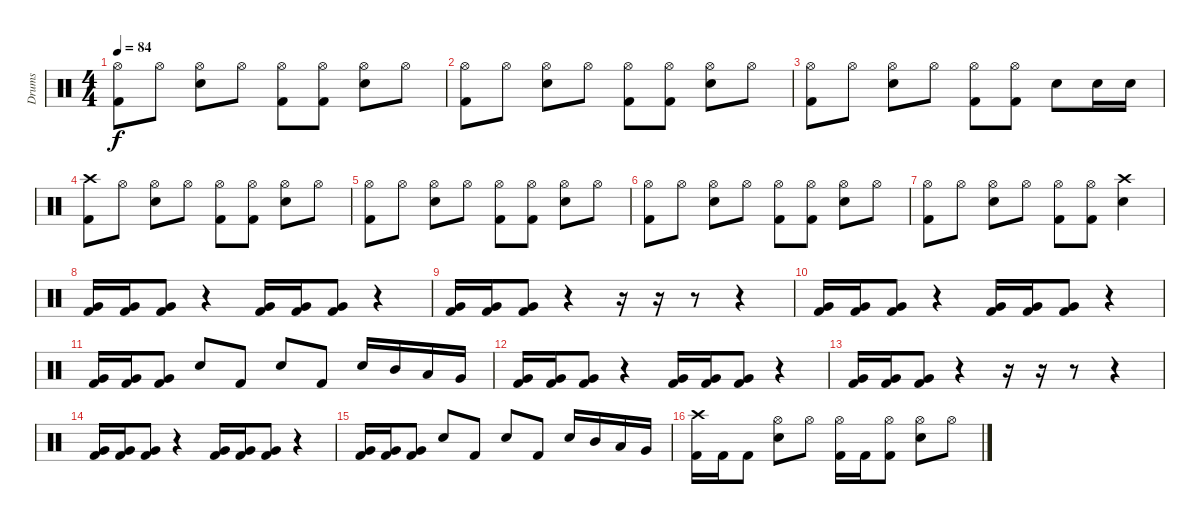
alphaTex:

\track ("Drums" "Drums") {instrument percussion}
\staff {score}
\articulation defaults
\ts (4 4)
\tempo 84
\clef neutral
\ks c
("Hi-Hat (open)" "Kick (hit) 2").8{dy f} "Hi-Hat (open)".8 ("Hi-Hat (open)" "Snare (hit) 2").8 "Hi-Hat (open)".8 ("Hi-Hat (open)" "Kick (hit) 2").8 ("Hi-Hat (open)" "Kick (hit) 2").8 ("Hi-Hat (open)" "Snare (hit) 2").8 "Hi-Hat (open)".8 |
("Hi-Hat (open)" "Kick (hit) 2").8 "Hi-Hat (open)".8 ("Hi-Hat (open)" "Snare (hit) 2").8 "Hi-Hat (open)".8 ("Hi-Hat (open)" "Kick (hit) 2").8 ("Hi-Hat (open)" "Kick (hit) 2").8 ("Hi-Hat (open)" "Snare (hit) 2").8 "Hi-Hat (open)".8 |
("Hi-Hat (open)" "Kick (hit) 2").8 "Hi-Hat (open)".8 ("Hi-Hat (open)" "Snare (hit) 2").8 "Hi-Hat (open)".8 ("Hi-Hat (open)" "Kick (hit) 2").8 ("Hi-Hat (open)" "Kick (hit) 2").8 "Snare (hit) 2".8 "Snare (hit) 2".16 "Snare (hit) 2".16 |
("Crash high (hit)" "Kick (hit) 2").8 "Hi-Hat (open)".8 ("Hi-Hat (open)" "Snare (hit) 2").8 "Hi-Hat (open)".8 ("Hi-Hat (open)" "Kick (hit) 2").8 ("Hi-Hat (open)" "Kick (hit) 2").8 ("Hi-Hat (open)" "Snare (hit) 2").8 "Hi-Hat (open)".8 |
("Hi-Hat (open)" "Kick (hit) 2").8 "Hi-Hat (open)".8 ("Hi-Hat (open)" "Snare (hit) 2").8 "Hi-Hat (open)".8 ("Hi-Hat (open)" "Kick (hit) 2").8 ("Hi-Hat (open)" "Kick (hit) 2").8 ("Hi-Hat (open)" "Snare (hit) 2").8 "Hi-Hat (open)".8 |
("Hi-Hat (open)" "Kick (hit) 2").8 "Hi-Hat (open)".8 ("Hi-Hat (open)" "Snare (hit) 2").8 "Hi-Hat (open)".8 ("Hi-Hat (open)" "Kick (hit) 2").8 ("Hi-Hat (open)" "Kick (hit) 2").8 ("Hi-Hat (open)" "Snare (hit) 2").8 "Hi-Hat (open)".8 |
("Hi-Hat (open)" "Kick (hit) 2").8 "Hi-Hat (open)".8 ("Hi-Hat (open)" "Snare (hit) 2").8 "Hi-Hat (open)".8 ("Hi-Hat (open)" "Kick (hit) 2").8 ("Hi-Hat (open)" "Kick (hit) 2").8 ("Crash high (hit)" "Snare (hit) 2").4 |
("Very Low Tom (hit)" "Kick (hit) 2").16 ("Very Low Tom (hit)" "Kick (hit) 2").16 ("Very Low Tom (hit)" "Kick (hit) 2").8 r.4 ("Very Low Tom (hit)" "Kick (hit) 2").16 ("Very Low Tom (hit)" "Kick (hit) 2").16 ("Very Low Tom (hit)" "Kick (hit) 2").8 r.4 |
("Very Low Tom (hit)" "Kick (hit) 2").16 ("Very Low Tom (hit)" "Kick (hit) 2").16 ("Very Low Tom (hit)" "Kick (hit) 2").8 r.4 r.16 r.16 r.8 r.4 |
("Very Low Tom (hit)" "Kick (hit) 2").16 ("Very Low Tom (hit)" "Kick (hit) 2").16 ("Very Low Tom (hit)" "Kick (hit) 2").8 r.4 ("Very Low Tom (hit)" "Kick (hit) 2").16 ("Very Low Tom (hit)" "Kick (hit) 2").16 ("Very Low Tom (hit)" "Kick (hit) 2").8 r.4 |
("Very Low Tom (hit)" "Kick (hit) 2").16 ("Very Low Tom (hit)" "Kick (hit) 2").16 ("Very Low Tom (hit)" "Kick (hit) 2").8 "Snare (hit) 2".8 "Kick (hit) 2".8 "Snare (hit) 2".8 "Kick (hit) 2".8 "Snare (hit) 2".16 "Mid Tom (hit)".16 "Low Tom (hit)".16 "Very Low Tom (hit)".16 |
("Very Low Tom (hit)" "Kick (hit) 2").16 ("Very Low Tom (hit)" "Kick (hit) 2").16 ("Very Low Tom (hit)" "Kick (hit) 2").8 r.4 ("Very Low Tom (hit)" "Kick (hit) 2").16 ("Very Low Tom (hit)" "Kick (hit) 2").16 ("Very Low Tom (hit)" "Kick (hit) 2").8 r.4 |
("Very Low Tom (hit)" "Kick (hit) 2").16 ("Very Low Tom (hit)" "Kick (hit) 2").16 ("Very Low Tom (hit)" "Kick (hit) 2").8 r.4 r.16 r.16 r.8 r.4 |
("Very Low Tom (hit)" "Kick (hit) 2").16 ("Very Low Tom (hit)" "Kick (hit) 2").16 ("Very Low Tom (hit)" "Kick (hit) 2").8 r.4 ("Very Low Tom (hit)" "Kick (hit) 2").16 ("Very Low Tom (hit)" "Kick (hit) 2").16 ("Very Low Tom (hit)" "Kick (hit) 2").8 r.4 |
("Very Low Tom (hit)" "Kick (hit) 2").16 ("Very Low Tom (hit)" "Kick (hit) 2").16 ("Very Low Tom (hit)" "Kick (hit) 2").8 "Snare (hit) 2".8 "Kick (hit) 2".8 "Snare (hit) 2".8 "Kick (hit) 2".8 "Snare (hit) 2".16 "Mid Tom (hit)".16 "Low Tom (hit)".16 "Very Low Tom (hit)".16 |
("Crash high (hit)" "Kick (hit) 2").16 "Kick (hit) 2".16 "Kick (hit) 2".8 ("Hi-Hat (open)" "Snare (hit) 2").8 "Hi-Hat (open)".8 ("Hi-Hat (open)" "Kick (hit) 2").16 "Kick (hit) 2".16 ("Hi-Hat (open)" "Kick (hit) 2").8 ("Hi-Hat (open)" "Snare (hit) 2").8 "Hi-Hat (open)".8
